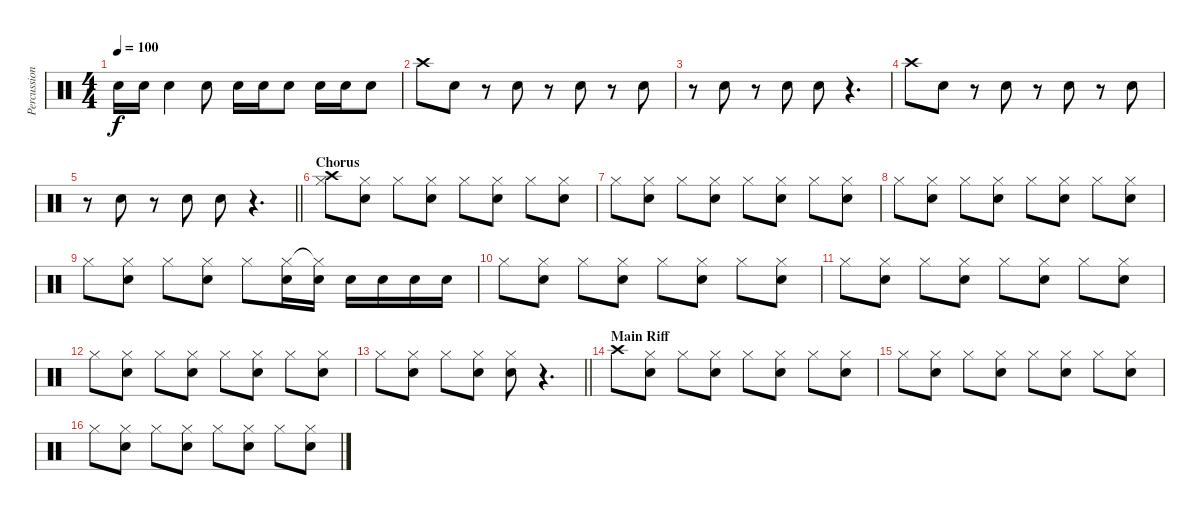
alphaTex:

\track ("Percussion" "Percussion") {instrument percussion}
\staff {score}
\articulation defaults
\ts (4 4)
\tempo 100
\clef neutral
\ks c "Snare (hit) 2".16{dy f} "Snare (hit) 2".16 "Snare (hit) 2".4 "Snare (hit) 2".8 "Snare (hit) 2".16 "Snare (hit) 2".16 "Snare (hit) 2".8 "Snare (hit) 2".16 "Snare (hit) 2".16 "Snare (hit) 2".8
|
"Crash high (hit)".8 "Snare (hit) 2".8 r.8 "Snare (hit) 2".8 r.8 "Snare (hit) 2".8 r.8 "Snare (hit) 2".8 |
r.8 "Snare (hit) 2".8 r.8 "Snare (hit) 2".8 "Snare (hit) 2".8 r.4{d} |
"Crash high (hit)".8 "Snare (hit) 2".8 r.8 "Snare (hit) 2".8 r.8 "Snare (hit) 2".8 r.8 "Snare (hit) 2".8 |
\barLineRight lightlight
r.8 "Snare (hit) 2".8 r.8 "Snare (hit) 2".8 "Snare (hit) 2".8 r.4{d} |
\section ("" "Chorus")
("Hi-Hat (closed)" "Crash high (hit)").8 ("Hi-Hat (closed)" "Snare (hit) 2").8 "Hi-Hat (closed)".8 ("Hi-Hat (closed)" "Snare (hit) 2").8 "Hi-Hat (closed)".8 ("Hi-Hat (closed)" "Snare (hit) 2").8 "Hi-Hat (closed)".8 ("Hi-Hat (closed)" "Snare (hit) 2").8 |
"Hi-Hat (closed)".8 ("Hi-Hat (closed)" "Snare (hit) 2").8 "Hi-Hat (closed)".8 ("Hi-Hat (closed)" "Snare (hit) 2").8 "Hi-Hat (closed)".8 ("Hi-Hat (closed)" "Snare (hit) 2").8 "Hi-Hat (closed)".8 ("Hi-Hat (closed)" "Snare (hit) 2").8 |
"Hi-Hat (closed)".8 ("Hi-Hat (closed)" "Snare (hit) 2").8 "Hi-Hat (closed)".8 ("Hi-Hat (closed)" "Snare (hit) 2").8 "Hi-Hat (closed)".8 ("Hi-Hat (closed)" "Snare (hit) 2").8 "Hi-Hat (closed)".8 ("Hi-Hat (closed)" "Snare (hit) 2").8 |
"Hi-Hat (closed)".8 ("Hi-Hat (closed)" "Snare (hit) 2").8 "Hi-Hat (closed)".8 ("Hi-Hat (closed)" "Snare (hit) 2").8 "Hi-Hat (closed)".8 ("Hi-Hat (closed)" "Snare (hit) 2").16 ("Hi-Hat (closed)"{t} "Snare (hit) 2").16 "Snare (hit) 2".16 "Snare (hit) 2".16 "Snare (hit) 2".16 "Snare (hit) 2".16 |
"Hi-Hat (closed)".8 ("Hi-Hat (closed)" "Snare (hit) 2").8 "Hi-Hat (closed)".8 ("Hi-Hat (closed)" "Snare (hit) 2").8 "Hi-Hat (closed)".8 ("Hi-Hat (closed)" "Snare (hit) 2").8 "Hi-Hat (closed)".8 ("Hi-Hat (closed)" "Snare (hit) 2").8 |
"Hi-Hat (closed)".8 ("Hi-Hat (closed)" "Snare (hit) 2").8 "Hi-Hat (closed)".8 ("Hi-Hat (closed)" "Snare (hit) 2").8 "Hi-Hat (closed)".8 ("Hi-Hat (closed)" "Snare (hit) 2").8 "Hi-Hat (closed)".8 ("Hi-Hat (closed)" "Snare (hit) 2").8 |
"Hi-Hat (closed)".8 ("Hi-Hat (closed)" "Snare (hit) 2").8 "Hi-Hat (closed)".8 ("Hi-Hat (closed)" "Snare (hit) 2").8 "Hi-Hat (closed)".8 ("Hi-Hat (closed)" "Snare (hit) 2").8 "Hi-Hat (closed)".8 ("Hi-Hat (closed)" "Snare (hit) 2").8 |
\barLineRight lightlight "Hi-Hat (closed)".8
("Hi-Hat (closed)" "Snare (hit) 2").8 "Hi-Hat (closed)".8 ("Hi-Hat (closed)" "Snare (hit) 2").8 ("Hi-Hat (closed)" "Snare (hit) 2").8 r.4{d} |
\section ("" "Main Riff")
"Crash high (hit)".8 ("Hi-Hat (closed)" "Snare (hit) 2").8 "Hi-Hat (closed)".8 ("Hi-Hat (closed)" "Snare (hit) 2").8 "Hi-Hat (closed)".8 ("Hi-Hat (closed)" "Snare (hit) 2").8 "Hi-Hat (closed)".8 ("Hi-Hat (closed)" "Snare (hit) 2").8 |
"Hi-Hat (closed)".8 ("Hi-Hat (closed)" "Snare (hit) 2").8 "Hi-Hat (closed)".8 ("Hi-Hat (closed)" "Snare (hit) 2").8 "Hi-Hat (closed)".8 ("Hi-Hat (closed)" "Snare (hit) 2").8 "Hi-Hat (closed)".8 ("Hi-Hat (closed)" "Snare (hit) 2").8 |
"Hi-Hat (closed)".8 ("Hi-Hat (closed)" "Snare (hit) 2").8 "Hi-Hat (closed)".8 ("Hi-Hat (closed)" "Snare (hit) 2").8 "Hi-Hat (closed)".8 ("Hi-Hat (closed)" "Snare (hit) 2").8 "Hi-Hat (closed)".8 ("Hi-Hat (closed)" "Snare (hit) 2").8
